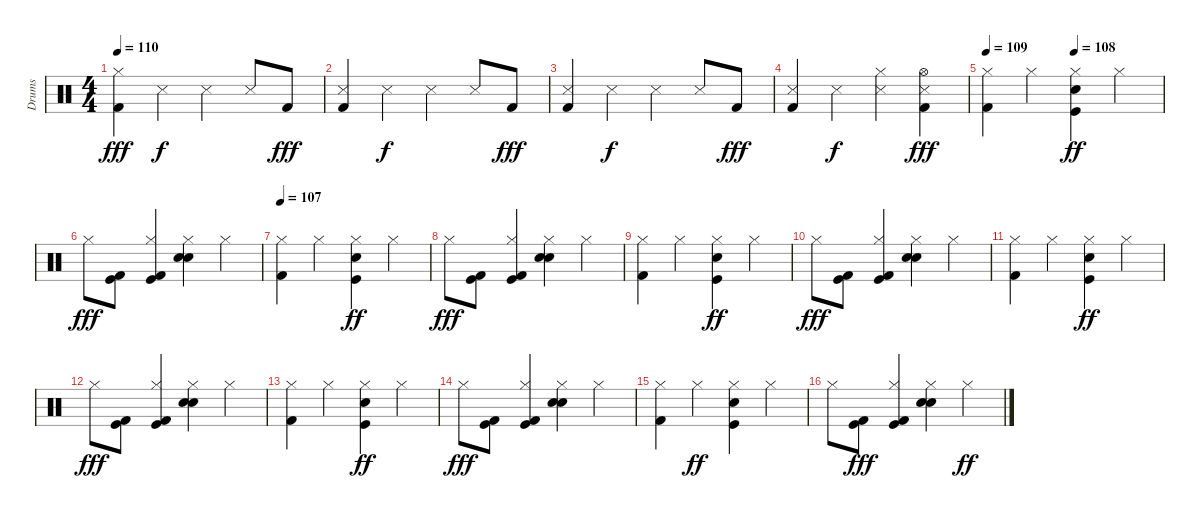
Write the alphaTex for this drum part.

\track ("Drums" "Drums") {instrument percussion}
\staff {score}
\articulation defaults
\ts (4 4)
\tempo 110
\clef neutral
\ks c
("Kick (hit) 2" "Hi-Hat (closed)").4{dy fff} "Snare (side stick) 3".4{dy f} "Snare (side stick) 3".4 "Snare (side stick) 3".8 "Kick (hit) 2".8{dy fff} |
("Snare (side stick) 3" "Kick (hit) 2").4 "Snare (side stick) 3".4{dy f} "Snare (side stick) 3".4 "Snare (side stick) 3".8 "Kick (hit) 2".8{dy fff} |
("Snare (side stick) 3" "Kick (hit) 2").4 "Snare (side stick) 3".4{dy f} "Snare (side stick) 3".4 "Snare (side stick) 3".8 "Kick (hit) 2".8{dy fff} |
("Kick (hit) 2" "Snare (side stick) 3").4 "Snare (side stick) 3".4{dy f} ("Snare (side stick) 3" "Hi-Hat (closed)").4 ("Hi-Hat (open)" "Snare (side stick) 3" "Kick (hit) 2").4{dy fff} |
\tempo 109
\tempo (108 0.5)
("Hi-Hat (closed)" "Kick (hit) 2").4 "Hi-Hat (closed)".4 ("Hi-Hat (closed)" "Kick (hit)" "Snare (hit) 2").4{dy ff} "Hi-Hat (closed)".4 |
"Hi-Hat (closed)".8{dy fff} ("Kick (hit)" "Kick (hit) 2").8 ("Hi-Hat (closed)" "Kick (hit)" "Kick (hit) 2").4 ("Hi-Hat (closed)" "Electric Snare (hit)" "Snare (hit) 2").4 "Hi-Hat (closed)".4 |
\tempo 107
("Hi-Hat (closed)" "Kick (hit) 2").4 "Hi-Hat (closed)".4 ("Hi-Hat (closed)" "Kick (hit)" "Snare (hit) 2").4{dy ff} "Hi-Hat (closed)".4 |
"Hi-Hat (closed)".8{dy fff} ("Kick (hit)" "Kick (hit) 2").8 ("Hi-Hat (closed)" "Kick (hit)" "Kick (hit) 2").4 ("Hi-Hat (closed)" "Electric Snare (hit)" "Snare (hit) 2").4 "Hi-Hat (closed)".4 |
("Hi-Hat (closed)" "Kick (hit) 2").4 "Hi-Hat (closed)".4 ("Hi-Hat (closed)" "Kick (hit)" "Snare (hit) 2").4{dy ff} "Hi-Hat (closed)".4 |
"Hi-Hat (closed)".8{dy fff} ("Kick (hit)" "Kick (hit) 2").8 ("Hi-Hat (closed)" "Kick (hit)" "Kick (hit) 2").4 ("Hi-Hat (closed)" "Electric Snare (hit)" "Snare (hit) 2").4 "Hi-Hat (closed)".4 |
("Hi-Hat (closed)" "Kick (hit) 2").4 "Hi-Hat (closed)".4 ("Hi-Hat (closed)" "Kick (hit)" "Snare (hit) 2").4{dy ff} "Hi-Hat (closed)".4 |
"Hi-Hat (closed)".8{dy fff} ("Kick (hit)" "Kick (hit) 2").8 ("Hi-Hat (closed)" "Kick (hit)" "Kick (hit) 2").4 ("Hi-Hat (closed)" "Electric Snare (hit)" "Snare (hit) 2").4 "Hi-Hat (closed)".4 |
("Hi-Hat (closed)" "Kick (hit) 2").4 "Hi-Hat (closed)".4 ("Hi-Hat (closed)" "Kick (hit)" "Snare (hit) 2").4{dy ff} "Hi-Hat (closed)".4 |
"Hi-Hat (closed)".8{dy fff} ("Kick (hit)" "Kick (hit) 2").8 ("Hi-Hat (closed)" "Kick (hit)" "Kick (hit) 2").4 ("Hi-Hat (closed)" "Electric Snare (hit)" "Snare (hit) 2").4 "Hi-Hat (closed)".4 |
("Hi-Hat (closed)" "Kick (hit) 2").4 "Hi-Hat (closed)".4{dy ff} ("Hi-Hat (closed)" "Kick (hit)" "Snare (hit) 2").4 "Hi-Hat (closed)".4 |
"Hi-Hat (closed)".8{volume 0} ("Kick (hit)" "Kick (hit) 2").8{dy fff} ("Hi-Hat (closed)" "Kick (hit)" "Kick (hit) 2").4 ("Hi-Hat (closed)" "Electric Snare (hit)" "Snare (hit) 2").4 "Hi-Hat (closed)".4{dy ff}
